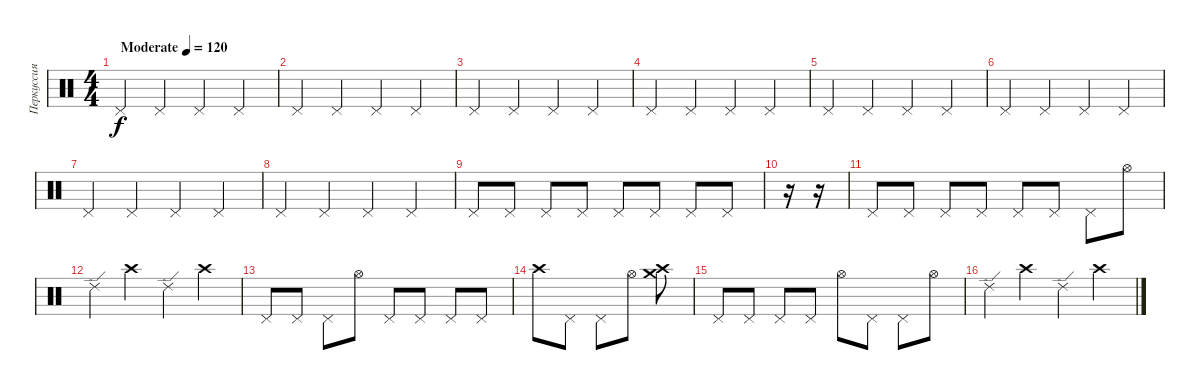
\track ("Перкуссия" "Перкуссия") {instrument percussion}
\staff {score}
\articulation defaults
\ts (4 4)
\tempo (120 "Moderate")
\clef neutral
\ks c "Pedal Hi-Hat (hit)".4{dy f} "Pedal Hi-Hat (hit)".4 "Pedal Hi-Hat (hit)".4 "Pedal Hi-Hat (hit)".4
|
"Pedal Hi-Hat (hit)".4 "Pedal Hi-Hat (hit)".4 "Pedal Hi-Hat (hit)".4 "Pedal Hi-Hat (hit)".4 |
"Pedal Hi-Hat (hit)".4 "Pedal Hi-Hat (hit)".4 "Pedal Hi-Hat (hit)".4 "Pedal Hi-Hat (hit)".4 |
"Pedal Hi-Hat (hit)".4 "Pedal Hi-Hat (hit)".4 "Pedal Hi-Hat (hit)".4 "Pedal Hi-Hat (hit)".4 |
"Pedal Hi-Hat (hit)".4 "Pedal Hi-Hat (hit)".4 "Pedal Hi-Hat (hit)".4 "Pedal Hi-Hat (hit)".4 |
"Pedal Hi-Hat (hit)".4 "Pedal Hi-Hat (hit)".4 "Pedal Hi-Hat (hit)".4 "Pedal Hi-Hat (hit)".4 |
"Pedal Hi-Hat (hit)".4 "Pedal Hi-Hat (hit)".4 "Pedal Hi-Hat (hit)".4 "Pedal Hi-Hat (hit)".4 |
"Pedal Hi-Hat (hit)".4 "Pedal Hi-Hat (hit)".4 "Pedal Hi-Hat (hit)".4 "Pedal Hi-Hat (hit)".4 |
"Pedal Hi-Hat (hit)".8 "Pedal Hi-Hat (hit)".8 "Pedal Hi-Hat (hit)".8 "Pedal Hi-Hat (hit)".8 "Pedal Hi-Hat (hit)".8 "Pedal Hi-Hat (hit)".8 "Pedal Hi-Hat (hit)".8 "Pedal Hi-Hat (hit)".8 |
r.16 r.16 |
"Pedal Hi-Hat (hit)".8 "Pedal Hi-Hat (hit)".8 "Pedal Hi-Hat (hit)".8 "Pedal Hi-Hat (hit)".8 "Pedal Hi-Hat (hit)".8 "Pedal Hi-Hat (hit)".8 "Pedal Hi-Hat (hit)".8 "Hi-Hat (open)".8 |
"Ride (edge) 2".4 "Crash high (hit)".4 "Ride (edge) 2".4 "Crash high (hit)".4 |
"Pedal Hi-Hat (hit)".8 "Pedal Hi-Hat (hit)".8 "Pedal Hi-Hat (hit)".8 "Hi-Hat (open)".8 "Pedal Hi-Hat (hit)".8 "Pedal Hi-Hat (hit)".8 "Pedal Hi-Hat (hit)".8 "Pedal Hi-Hat (hit)".8 |
"Crash high (hit)".8 "Pedal Hi-Hat (hit)".8 "Pedal Hi-Hat (hit)".8 "Hi-Hat (open)".8 ("Crash high (hit)" "Crash medium (hit)").8 |
"Pedal Hi-Hat (hit)".8 "Pedal Hi-Hat (hit)".8 "Pedal Hi-Hat (hit)".8 "Pedal Hi-Hat (hit)".8 "Hi-Hat (open)".8 "Pedal Hi-Hat (hit)".8 "Pedal Hi-Hat (hit)".8 "Hi-Hat (open)".8 |
"Ride (edge) 2".4 "Crash high (hit)".4 "Ride (edge) 2".4 "Crash high (hit)".4
